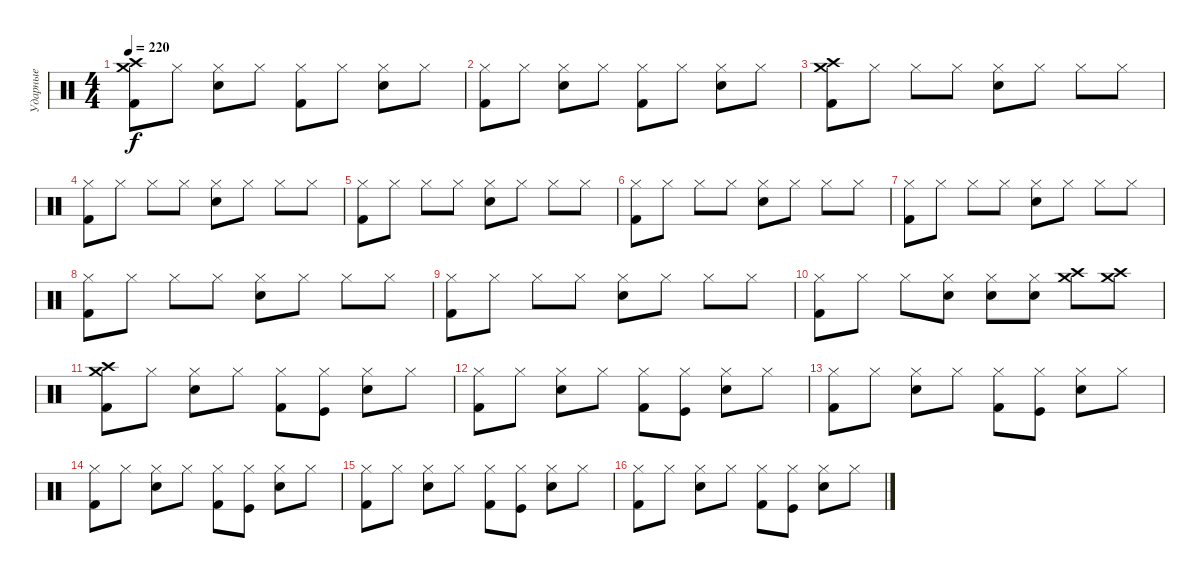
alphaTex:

\track ("Ударные" "Ударные") {instrument percussion}
\staff {score}
\articulation defaults
\ts (4 4)
\tempo 220
\clef neutral
\ks c
("Crash high (hit)" "Crash medium (hit)" "Kick (hit) 2").8{dy f} "Hi-Hat (closed)".8 ("Hi-Hat (closed)" "Snare (hit) 2").8 "Hi-Hat (closed)".8 ("Hi-Hat (closed)" "Kick (hit) 2").8 "Hi-Hat (closed)".8 ("Hi-Hat (closed)" "Snare (hit) 2").8 "Hi-Hat (closed)".8 |
("Hi-Hat (closed)" "Kick (hit) 2").8 "Hi-Hat (closed)".8 ("Hi-Hat (closed)" "Snare (hit) 2").8 "Hi-Hat (closed)".8 ("Hi-Hat (closed)" "Kick (hit) 2").8 "Hi-Hat (closed)".8 ("Hi-Hat (closed)" "Snare (hit) 2").8 "Hi-Hat (closed)".8 |
("Crash high (hit)" "Crash medium (hit)" "Kick (hit) 2").8 "Hi-Hat (closed)".8 "Hi-Hat (closed)".8 "Hi-Hat (closed)".8 ("Hi-Hat (closed)" "Snare (hit) 2").8 "Hi-Hat (closed)".8 "Hi-Hat (closed)".8 "Hi-Hat (closed)".8 |
("Hi-Hat (closed)" "Kick (hit) 2").8 "Hi-Hat (closed)".8 "Hi-Hat (closed)".8 "Hi-Hat (closed)".8 ("Hi-Hat (closed)" "Snare (hit) 2").8 "Hi-Hat (closed)".8 "Hi-Hat (closed)".8 "Hi-Hat (closed)".8 |
("Hi-Hat (closed)" "Kick (hit) 2").8 "Hi-Hat (closed)".8 "Hi-Hat (closed)".8 "Hi-Hat (closed)".8 ("Hi-Hat (closed)" "Snare (hit) 2").8 "Hi-Hat (closed)".8 "Hi-Hat (closed)".8 "Hi-Hat (closed)".8 |
("Hi-Hat (closed)" "Kick (hit) 2").8 "Hi-Hat (closed)".8 "Hi-Hat (closed)".8 "Hi-Hat (closed)".8 ("Hi-Hat (closed)" "Snare (hit) 2").8 "Hi-Hat (closed)".8 "Hi-Hat (closed)".8 "Hi-Hat (closed)".8 |
("Hi-Hat (closed)" "Kick (hit) 2").8 "Hi-Hat (closed)".8 "Hi-Hat (closed)".8 "Hi-Hat (closed)".8 ("Hi-Hat (closed)" "Snare (hit) 2").8 "Hi-Hat (closed)".8 "Hi-Hat (closed)".8 "Hi-Hat (closed)".8 |
("Hi-Hat (closed)" "Kick (hit) 2").8 "Hi-Hat (closed)".8 "Hi-Hat (closed)".8 "Hi-Hat (closed)".8 ("Hi-Hat (closed)" "Snare (hit) 2").8 "Hi-Hat (closed)".8 "Hi-Hat (closed)".8 "Hi-Hat (closed)".8 |
("Hi-Hat (closed)" "Kick (hit) 2").8 "Hi-Hat (closed)".8 "Hi-Hat (closed)".8 "Hi-Hat (closed)".8 ("Hi-Hat (closed)" "Snare (hit) 2").8 "Hi-Hat (closed)".8 "Hi-Hat (closed)".8 "Hi-Hat (closed)".8 |
("Hi-Hat (closed)" "Kick (hit) 2").8 "Hi-Hat (closed)".8 "Hi-Hat (closed)".8 ("Hi-Hat (closed)" "Snare (hit) 2").8 ("Hi-Hat (closed)" "Snare (hit) 2").8 ("Hi-Hat (closed)" "Snare (hit) 2").8 ("Crash high (hit)" "Crash medium (hit)").8 ("Crash medium (hit)" "Crash high (hit)").8 |
("Crash high (hit)" "Crash medium (hit)" "Kick (hit) 2").8 "Hi-Hat (closed)".8 ("Hi-Hat (closed)" "Snare (hit) 2").8 "Hi-Hat (closed)".8 ("Hi-Hat (closed)" "Kick (hit) 2").8 ("Hi-Hat (closed)" "Kick (hit)").8 ("Hi-Hat (closed)" "Snare (hit) 2").8 "Hi-Hat (closed)".8 |
("Hi-Hat (closed)" "Kick (hit) 2").8 "Hi-Hat (closed)".8 ("Hi-Hat (closed)" "Snare (hit) 2").8 "Hi-Hat (closed)".8 ("Hi-Hat (closed)" "Kick (hit) 2").8 ("Hi-Hat (closed)" "Kick (hit)").8 ("Hi-Hat (closed)" "Snare (hit) 2").8 "Hi-Hat (closed)".8 |
("Hi-Hat (closed)" "Kick (hit) 2").8 "Hi-Hat (closed)".8 ("Hi-Hat (closed)" "Snare (hit) 2").8 "Hi-Hat (closed)".8 ("Hi-Hat (closed)" "Kick (hit) 2").8 ("Hi-Hat (closed)" "Kick (hit)").8 ("Hi-Hat (closed)" "Snare (hit) 2").8 "Hi-Hat (closed)".8 |
("Hi-Hat (closed)" "Kick (hit) 2").8 "Hi-Hat (closed)".8 ("Hi-Hat (closed)" "Snare (hit) 2").8 "Hi-Hat (closed)".8 ("Hi-Hat (closed)" "Kick (hit) 2").8 ("Hi-Hat (closed)" "Kick (hit)").8 ("Hi-Hat (closed)" "Snare (hit) 2").8 "Hi-Hat (closed)".8 |
("Hi-Hat (closed)" "Kick (hit) 2").8 "Hi-Hat (closed)".8 ("Hi-Hat (closed)" "Snare (hit) 2").8 "Hi-Hat (closed)".8 ("Hi-Hat (closed)" "Kick (hit) 2").8 ("Hi-Hat (closed)" "Kick (hit)").8 ("Hi-Hat (closed)" "Snare (hit) 2").8 "Hi-Hat (closed)".8 |
("Hi-Hat (closed)" "Kick (hit) 2").8 "Hi-Hat (closed)".8 ("Hi-Hat (closed)" "Snare (hit) 2").8 "Hi-Hat (closed)".8 ("Hi-Hat (closed)" "Kick (hit) 2").8 ("Hi-Hat (closed)" "Kick (hit)").8 ("Hi-Hat (closed)" "Snare (hit) 2").8 "Hi-Hat (closed)".8
